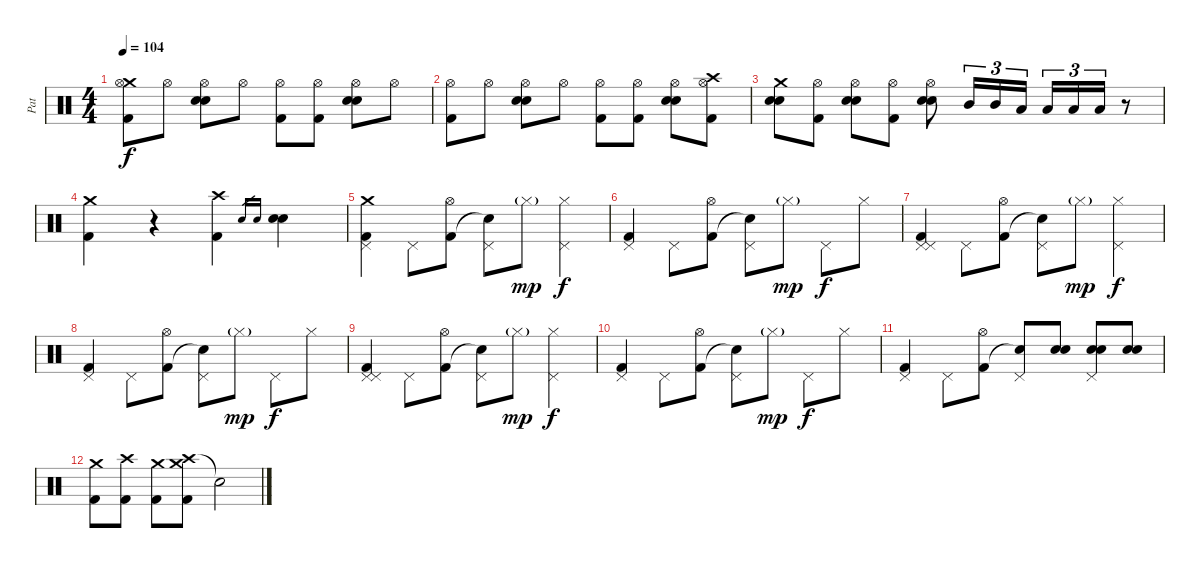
\track ("Pat" "Pat") {instrument percussion}
\staff {score}
\articulation defaults
\ts (4 4)
\tempo 104
\clef neutral
\ks c
("Crash medium (hit)" "Hi-Hat (open)" "Kick (hit) 2").8{dy f} "Hi-Hat (open)".8 ("Hi-Hat (open)" "Electric Snare (hit)" "Snare (hit) 2").8 "Hi-Hat (open)".8 ("Hi-Hat (open)" "Kick (hit) 2").8 ("Hi-Hat (open)" "Kick (hit) 2").8 ("Hi-Hat (open)" "Electric Snare (hit)" "Snare (hit) 2").8 "Hi-Hat (open)".8 |
("Hi-Hat (open)" "Kick (hit) 2").8 "Hi-Hat (open)".8 ("Hi-Hat (open)" "Electric Snare (hit)" "Snare (hit) 2").8 "Hi-Hat (open)".8 ("Hi-Hat (open)" "Kick (hit) 2").8 ("Hi-Hat (open)" "Kick (hit) 2").8 ("Hi-Hat (open)" "Electric Snare (hit)" "Snare (hit) 2").8 ("Crash high (hit)" "Hi-Hat (open)" "Kick (hit) 2").8 |
("Crash medium (hit)" "Electric Snare (hit)" "Snare (hit) 2").8 ("Hi-Hat (open)" "Kick (hit) 2").8 ("Hi-Hat (open)" "Electric Snare (hit)" "Snare (hit) 2").8 ("Hi-Hat (open)" "Kick (hit) 2").8 ("Hi-Hat (open)" "Electric Snare (hit)" "Snare (hit) 2").8 "Mid Tom (hit)".16{tu (3 2)} "Mid Tom (hit)".16{tu (3 2)} "Low Tom (hit)".16{tu (3 2)} "Low Tom (hit)".16{tu (3 2)} "Low Floor Tom (hit)".16{tu (3 2)} "Low Floor Tom (hit)".16{tu (3 2)} r.8 |
("Crash medium (hit)" "Kick (hit) 2").4 r.4 ("Crash high (hit)" "Kick (hit) 2").4 "Electric Snare (hit)".16{gr} "Snare (hit) 2".16{gr} ("Electric Snare (hit)" "Snare (hit) 2").4 |
("Crash medium (hit)" "Pedal Hi-Hat (hit)" "Kick (hit) 2").4 "Pedal Hi-Hat (hit)".8 ("Hi-Hat (open)" "Kick (hit) 2").8 ("Pedal Hi-Hat (hit)" "Snare (hit)"{t}).8 "Hi-Hat (closed)"{g}.8{dy mp} ("Pedal Hi-Hat (hit)" "Hi-Hat (closed)").4{dy f} |
("Pedal Hi-Hat (hit)" "Kick (hit) 2").4 "Pedal Hi-Hat (hit)".8 ("Hi-Hat (open)" "Kick (hit) 2").8 ("Pedal Hi-Hat (hit)" "Snare (hit)"{t}).8 "Hi-Hat (closed)"{g}.8{dy mp} "Pedal Hi-Hat (hit)".8{dy f} "Hi-Hat (closed)".8 |
("Pedal Hi-Hat (hit)" "Pedal Hi-Hat (hit)" "Kick (hit) 2").4 "Pedal Hi-Hat (hit)".8 ("Hi-Hat (open)" "Kick (hit) 2").8 ("Pedal Hi-Hat (hit)" "Snare (hit)"{t}).8 "Hi-Hat (closed)"{g}.8{dy mp} ("Pedal Hi-Hat (hit)" "Hi-Hat (closed)").4{dy f} |
("Pedal Hi-Hat (hit)" "Kick (hit) 2").4 "Pedal Hi-Hat (hit)".8 ("Hi-Hat (open)" "Kick (hit) 2").8 ("Pedal Hi-Hat (hit)" "Snare (hit)"{t}).8 "Hi-Hat (closed)"{g}.8{dy mp} "Pedal Hi-Hat (hit)".8{dy f} "Hi-Hat (closed)".8 |
("Pedal Hi-Hat (hit)" "Pedal Hi-Hat (hit)" "Kick (hit) 2").4 "Pedal Hi-Hat (hit)".8 ("Hi-Hat (open)" "Kick (hit) 2").8 ("Pedal Hi-Hat (hit)" "Snare (hit)"{t}).8 "Hi-Hat (closed)"{g}.8{dy mp} ("Pedal Hi-Hat (hit)" "Hi-Hat (closed)").4{dy f} |
("Pedal Hi-Hat (hit)" "Kick (hit) 2").4 "Pedal Hi-Hat (hit)".8 ("Hi-Hat (open)" "Kick (hit) 2").8 ("Pedal Hi-Hat (hit)" "Snare (hit)"{t}).8 "Hi-Hat (closed)"{g}.8{dy mp} "Pedal Hi-Hat (hit)".8{dy f} "Hi-Hat (closed)".8 |
("Pedal Hi-Hat (hit)" "Kick (hit) 2").4 "Pedal Hi-Hat (hit)".8 ("Hi-Hat (open)" "Kick (hit) 2").8 ("Pedal Hi-Hat (hit)" "Snare (hit)"{t}).8 ("Snare (hit) 2" "Electric Snare (hit)").8 ("Pedal Hi-Hat (hit)" "Snare (hit) 2" "Electric Snare (hit)").8 ("Snare (hit) 2" "Electric Snare (hit)").8 |
("Crash medium (hit)" "Kick (hit) 2").8 ("Crash high (hit)" "Kick (hit) 2").8 ("Crash medium (hit)" "Kick (hit) 2").8 ("Crash high (hit)" "Crash medium (hit)" "Kick (hit) 2").8 "Snare (hit)"{t}.2
